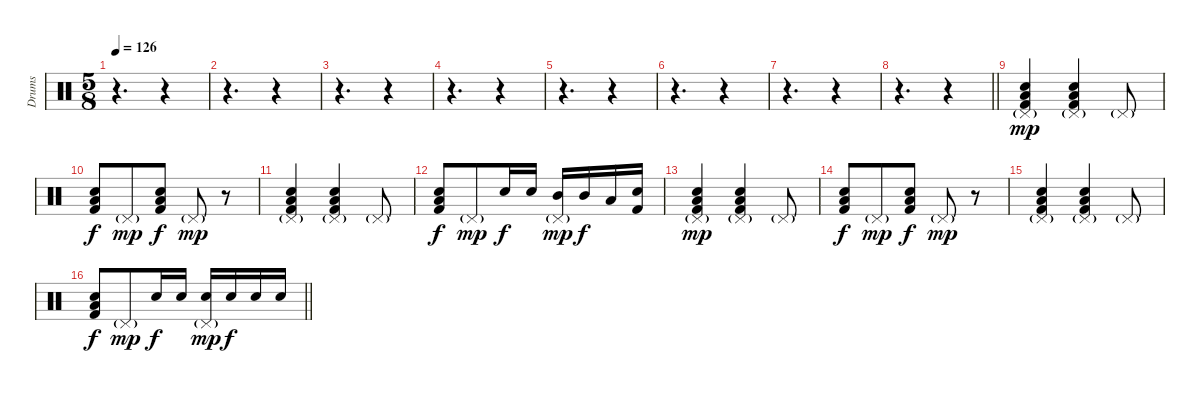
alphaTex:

\track ("Drums" "Drums") {instrument percussion}
\staff {score}
\articulation defaults
\ts (5 8)
\tempo 126
\clef neutral
\ks c
r.4{d dy mp} r.4 |
r.4{d} r.4 |
r.4{d} r.4 |
r.4{d} r.4 |
r.4{d} r.4 |
r.4{d} r.4 |
r.4{d} r.4 |
\barLineRight lightlight
r.4{d} r.4 |
("Pedal Hi-Hat (hit)"{g} "Low Tom (hit)" "Electric Snare (hit)" "Kick (hit) 2").4 ("Pedal Hi-Hat (hit)"{g} "Low Tom (hit)" "Electric Snare (hit)" "Kick (hit) 2").4 "Pedal Hi-Hat (hit)"{g}.8 |
("Low Tom (hit)" "Electric Snare (hit)" "Kick (hit) 2").8{dy f} "Pedal Hi-Hat (hit)"{g}.8{dy mp} ("Low Tom (hit)" "Electric Snare (hit)" "Kick (hit) 2").8{dy f} "Pedal Hi-Hat (hit)"{g}.8{dy mp} r.8 |
("Pedal Hi-Hat (hit)"{g} "Low Tom (hit)" "Electric Snare (hit)" "Kick (hit) 2").4 ("Pedal Hi-Hat (hit)"{g} "Low Tom (hit)" "Electric Snare (hit)" "Kick (hit) 2").4 "Pedal Hi-Hat (hit)"{g}.8 |
("Low Tom (hit)" "Electric Snare (hit)" "Kick (hit) 2").8{dy f} "Pedal Hi-Hat (hit)"{g}.8{dy mp} "Electric Snare (hit)".16{dy f} "Electric Snare (hit)".16 ("Pedal Hi-Hat (hit)"{g} "Mid Tom (hit)").16{dy mp} "Mid Tom (hit)".16{dy f} "Low Tom (hit)".16 ("Electric Snare (hit)" "Kick (hit) 2").16 |
("Pedal Hi-Hat (hit)"{g} "Low Tom (hit)" "Electric Snare (hit)" "Kick (hit) 2").4{dy mp} ("Pedal Hi-Hat (hit)"{g} "Low Tom (hit)" "Electric Snare (hit)" "Kick (hit) 2").4 "Pedal Hi-Hat (hit)"{g}.8 |
("Low Tom (hit)" "Electric Snare (hit)" "Kick (hit) 2").8{dy f} "Pedal Hi-Hat (hit)"{g}.8{dy mp} ("Low Tom (hit)" "Electric Snare (hit)" "Kick (hit) 2").8{dy f} "Pedal Hi-Hat (hit)"{g}.8{dy mp} r.8 |
("Pedal Hi-Hat (hit)"{g} "Low Tom (hit)" "Electric Snare (hit)" "Kick (hit) 2").4 ("Pedal Hi-Hat (hit)"{g} "Low Tom (hit)" "Electric Snare (hit)" "Kick (hit) 2").4 "Pedal Hi-Hat (hit)"{g}.8 |
\barLineRight lightlight
("Low Tom (hit)" "Electric Snare (hit)" "Kick (hit) 2").8{dy f} "Pedal Hi-Hat (hit)"{g}.8{dy mp} "Electric Snare (hit)".16{dy f} "Electric Snare (hit)".16 ("Pedal Hi-Hat (hit)"{g} "Electric Snare (hit)").16{dy mp} "Electric Snare (hit)".16{dy f} "Electric Snare (hit)".16 "Electric Snare (hit)".16
